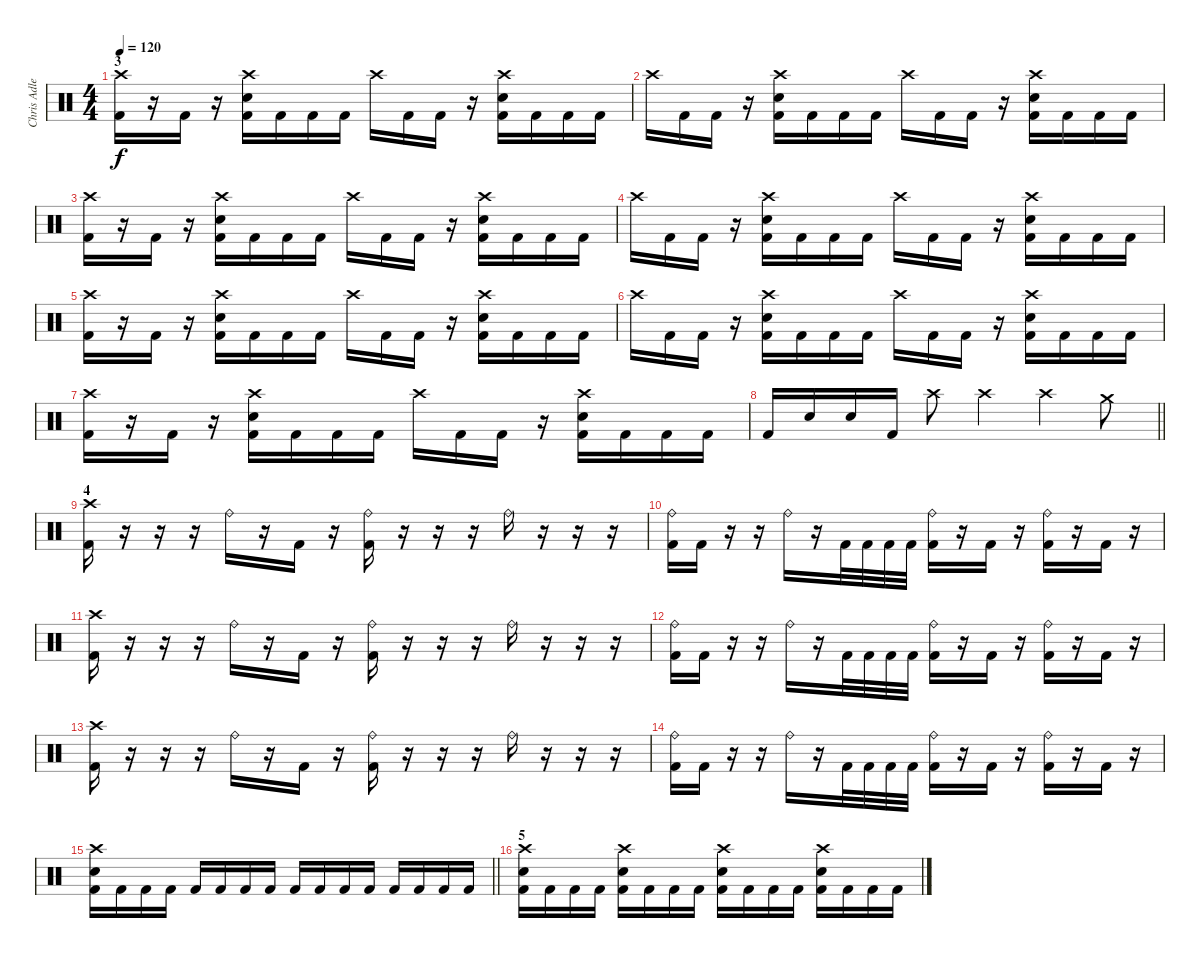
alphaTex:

\track ("Chris Adler" "Chris Adle") {instrument percussion}
\staff {score}
\articulation defaults
\ts (4 4)
\section ("" "3")
\tempo 120
\clef neutral
\ks c
("Crash high (hit)" "Kick (hit) 2").16{dy f} r.16 "Kick (hit) 2".16 r.16 ("Crash high (hit)" "Electric Snare (hit)" "Kick (hit) 2").16 "Kick (hit) 2".16 "Kick (hit) 2".16 "Kick (hit) 2".16 "Crash high (hit)".16 "Kick (hit) 2".16 "Kick (hit) 2".16 r.16 ("Crash high (hit)" "Electric Snare (hit)" "Kick (hit) 2").16 "Kick (hit) 2".16 "Kick (hit) 2".16 "Kick (hit) 2".16 |
"Crash high (hit)".16 "Kick (hit) 2".16 "Kick (hit) 2".16 r.16 ("Crash high (hit)" "Electric Snare (hit)" "Kick (hit) 2").16 "Kick (hit) 2".16 "Kick (hit) 2".16 "Kick (hit) 2".16 "Crash high (hit)".16 "Kick (hit) 2".16 "Kick (hit) 2".16 r.16 ("Crash high (hit)" "Electric Snare (hit)" "Kick (hit) 2").16 "Kick (hit) 2".16 "Kick (hit) 2".16 "Kick (hit) 2".16 |
("Crash high (hit)" "Kick (hit) 2").16 r.16 "Kick (hit) 2".16 r.16 ("Crash high (hit)" "Electric Snare (hit)" "Kick (hit) 2").16 "Kick (hit) 2".16 "Kick (hit) 2".16 "Kick (hit) 2".16 "Crash high (hit)".16 "Kick (hit) 2".16 "Kick (hit) 2".16 r.16 ("Crash high (hit)" "Electric Snare (hit)" "Kick (hit) 2").16 "Kick (hit) 2".16 "Kick (hit) 2".16 "Kick (hit) 2".16 |
"Crash high (hit)".16 "Kick (hit) 2".16 "Kick (hit) 2".16 r.16 ("Crash high (hit)" "Electric Snare (hit)" "Kick (hit) 2").16 "Kick (hit) 2".16 "Kick (hit) 2".16 "Kick (hit) 2".16 "Crash high (hit)".16 "Kick (hit) 2".16 "Kick (hit) 2".16 r.16 ("Crash high (hit)" "Electric Snare (hit)" "Kick (hit) 2").16 "Kick (hit) 2".16 "Kick (hit) 2".16 "Kick (hit) 2".16 |
("Crash high (hit)" "Kick (hit) 2").16 r.16 "Kick (hit) 2".16 r.16 ("Crash high (hit)" "Electric Snare (hit)" "Kick (hit) 2").16 "Kick (hit) 2".16 "Kick (hit) 2".16 "Kick (hit) 2".16 "Crash high (hit)".16 "Kick (hit) 2".16 "Kick (hit) 2".16 r.16 ("Crash high (hit)" "Electric Snare (hit)" "Kick (hit) 2").16 "Kick (hit) 2".16 "Kick (hit) 2".16 "Kick (hit) 2".16 |
"Crash high (hit)".16 "Kick (hit) 2".16 "Kick (hit) 2".16 r.16 ("Crash high (hit)" "Electric Snare (hit)" "Kick (hit) 2").16 "Kick (hit) 2".16 "Kick (hit) 2".16 "Kick (hit) 2".16 "Crash high (hit)".16 "Kick (hit) 2".16 "Kick (hit) 2".16 r.16 ("Crash high (hit)" "Electric Snare (hit)" "Kick (hit) 2").16 "Kick (hit) 2".16 "Kick (hit) 2".16 "Kick (hit) 2".16 |
("Crash high (hit)" "Kick (hit) 2").16 r.16 "Kick (hit) 2".16 r.16 ("Crash high (hit)" "Electric Snare (hit)" "Kick (hit) 2").16 "Kick (hit) 2".16 "Kick (hit) 2".16 "Kick (hit) 2".16 "Crash high (hit)".16 "Kick (hit) 2".16 "Kick (hit) 2".16 r.16 ("Crash high (hit)" "Electric Snare (hit)" "Kick (hit) 2").16 "Kick (hit) 2".16 "Kick (hit) 2".16 "Kick (hit) 2".16 |
\barLineRight lightlight "Kick (hit) 2".16 "Electric Snare (hit)".16 "Electric Snare (hit)".16 "Kick (hit) 2".16 "Crash high (hit)".8 "Crash high (hit)".4 "Crash high (hit)".4 "Crash medium (hit)".8
|
\section ("" "4")
("Crash high (hit)" "Kick (hit) 2").16 r.16 r.16 r.16 "Ride (bell)".16 r.16 "Kick (hit) 2".16 r.16 ("Ride (bell)" "Kick (hit) 2").16 r.16 r.16 r.16 "Ride (bell)".16 r.16 r.16 r.16 |
("Ride (bell)" "Kick (hit) 2").16 "Kick (hit) 2".16 r.16 r.16 "Ride (bell)".16 r.16 "Kick (hit) 2".32 "Kick (hit) 2".32 "Kick (hit) 2".32 "Kick (hit) 2".32 ("Ride (bell)" "Kick (hit) 2").16 r.16 "Kick (hit) 2".16 r.16 ("Ride (bell)" "Kick (hit) 2").16 r.16 "Kick (hit) 2".16 r.16 |
("Crash high (hit)" "Kick (hit) 2").16 r.16 r.16 r.16 "Ride (bell)".16 r.16 "Kick (hit) 2".16 r.16 ("Ride (bell)" "Kick (hit) 2").16 r.16 r.16 r.16 "Ride (bell)".16 r.16 r.16 r.16 |
("Ride (bell)" "Kick (hit) 2").16 "Kick (hit) 2".16 r.16 r.16 "Ride (bell)".16 r.16 "Kick (hit) 2".32 "Kick (hit) 2".32 "Kick (hit) 2".32 "Kick (hit) 2".32 ("Ride (bell)" "Kick (hit) 2").16 r.16 "Kick (hit) 2".16 r.16 ("Ride (bell)" "Kick (hit) 2").16 r.16 "Kick (hit) 2".16 r.16 |
("Crash high (hit)" "Kick (hit) 2").16 r.16 r.16 r.16 "Ride (bell)".16 r.16 "Kick (hit) 2".16 r.16 ("Ride (bell)" "Kick (hit) 2").16 r.16 r.16 r.16 "Ride (bell)".16 r.16 r.16 r.16 |
("Ride (bell)" "Kick (hit) 2").16 "Kick (hit) 2".16 r.16 r.16 "Ride (bell)".16 r.16 "Kick (hit) 2".32 "Kick (hit) 2".32 "Kick (hit) 2".32 "Kick (hit) 2".32 ("Ride (bell)" "Kick (hit) 2").16 r.16 "Kick (hit) 2".16 r.16 ("Ride (bell)" "Kick (hit) 2").16 r.16 "Kick (hit) 2".16 r.16 |
\barLineRight lightlight
("Crash high (hit)" "Electric Snare (hit)" "Kick (hit) 2").16 "Kick (hit) 2".16 "Kick (hit) 2".16 "Kick (hit) 2".16 "Kick (hit) 2".16 "Kick (hit) 2".16 "Kick (hit) 2".16 "Kick (hit) 2".16 "Kick (hit) 2".16 "Kick (hit) 2".16 "Kick (hit) 2".16 "Kick (hit) 2".16 "Kick (hit) 2".16 "Kick (hit) 2".16 "Kick (hit) 2".16 "Kick (hit) 2".16 |
\section ("" "5")
("Crash high (hit)" "Electric Snare (hit)" "Kick (hit) 2").16 "Kick (hit) 2".16 "Kick (hit) 2".16 "Kick (hit) 2".16 ("Crash high (hit)" "Electric Snare (hit)" "Kick (hit) 2").16 "Kick (hit) 2".16 "Kick (hit) 2".16 "Kick (hit) 2".16 ("Crash high (hit)" "Electric Snare (hit)" "Kick (hit) 2").16 "Kick (hit) 2".16 "Kick (hit) 2".16 "Kick (hit) 2".16 ("Crash high (hit)" "Electric Snare (hit)" "Kick (hit) 2").16 "Kick (hit) 2".16 "Kick (hit) 2".16 "Kick (hit) 2".16
